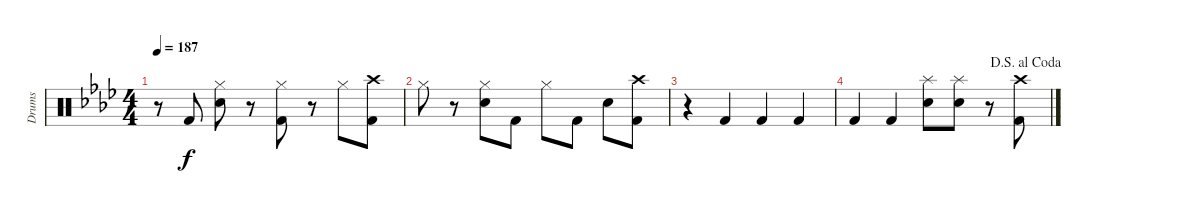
\track ("Drums" "Drums") {instrument percussion}
\staff {score}
\articulation defaults
\ts (4 4)
\tempo 187
\clef neutral
\ks ab
r.8{dy f} "Kick (hit) 2".8 ("Hi-Hat (closed)" "Electric Snare (hit)").8 r.8 ("Hi-Hat (closed)" "Kick (hit) 2").8 r.8 "Hi-Hat (closed)".8 ("Crash high (hit)" "Kick (hit) 2").8 |
"Hi-Hat (closed)".8 r.8 ("Hi-Hat (closed)" "Electric Snare (hit)").8 "Kick (hit) 2".8 "Hi-Hat (closed)".8 "Kick (hit) 2".8 "Electric Snare (hit)".8 ("Crash high (hit)" "Kick (hit) 2").8 |
r.4 "Kick (hit) 2".4 "Kick (hit) 2".4 "Kick (hit) 2".4 |
\jump dalsegnoalcoda "Kick (hit) 2".4 "Kick (hit) 2".4
("Splash (hit)" "Electric Snare (hit)").8 ("Splash (hit)" "Electric Snare (hit)").8 r.8 ("Crash high (hit)" "Kick (hit) 2").8
